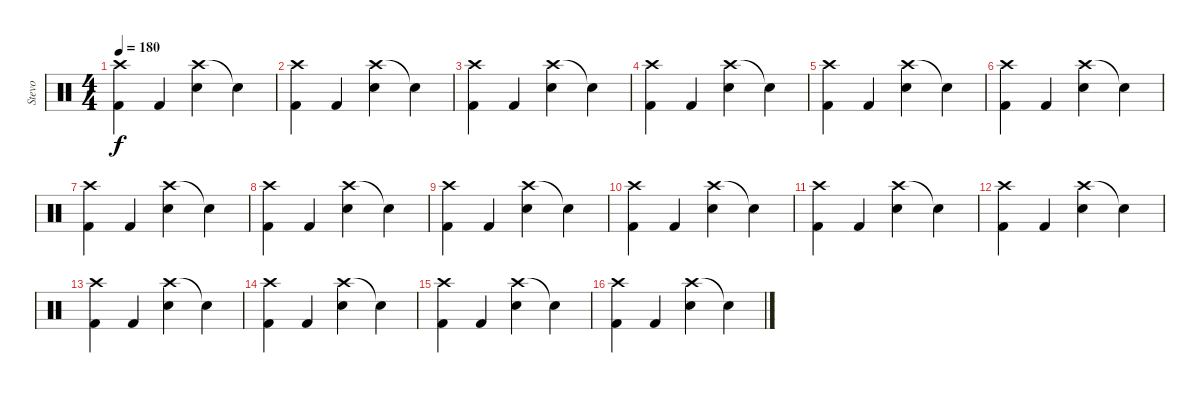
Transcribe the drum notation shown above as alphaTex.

\track ("Stevo" "Stevo") {instrument percussion}
\staff {score}
\articulation defaults
\ts (4 4)
\tempo 180
\clef neutral
\ks c
("Crash high (hit)" "Kick (hit) 2").4{dy f} "Kick (hit) 2".4 ("Crash high (hit)" "Electric Snare (hit)").4 "Snare (hit)"{t}.4 |
("Crash high (hit)" "Kick (hit) 2").4 "Kick (hit) 2".4 ("Crash high (hit)" "Electric Snare (hit)").4 "Snare (hit)"{t}.4 |
("Crash high (hit)" "Kick (hit) 2").4 "Kick (hit) 2".4 ("Crash high (hit)" "Electric Snare (hit)").4 "Snare (hit)"{t}.4 |
("Crash high (hit)" "Kick (hit) 2").4 "Kick (hit) 2".4 ("Crash high (hit)" "Electric Snare (hit)").4 "Snare (hit)"{t}.4 |
("Crash high (hit)" "Kick (hit) 2").4 "Kick (hit) 2".4 ("Crash high (hit)" "Electric Snare (hit)").4 "Snare (hit)"{t}.4 |
("Crash high (hit)" "Kick (hit) 2").4 "Kick (hit) 2".4 ("Crash high (hit)" "Electric Snare (hit)").4 "Snare (hit)"{t}.4 |
("Crash high (hit)" "Kick (hit) 2").4 "Kick (hit) 2".4 ("Crash high (hit)" "Electric Snare (hit)").4 "Snare (hit)"{t}.4 |
("Crash high (hit)" "Kick (hit) 2").4 "Kick (hit) 2".4 ("Crash high (hit)" "Electric Snare (hit)").4 "Snare (hit)"{t}.4 |
("Crash high (hit)" "Kick (hit) 2").4 "Kick (hit) 2".4 ("Crash high (hit)" "Electric Snare (hit)").4 "Snare (hit)"{t}.4 |
("Crash high (hit)" "Kick (hit) 2").4 "Kick (hit) 2".4 ("Crash high (hit)" "Electric Snare (hit)").4 "Snare (hit)"{t}.4 |
("Crash high (hit)" "Kick (hit) 2").4 "Kick (hit) 2".4 ("Crash high (hit)" "Electric Snare (hit)").4 "Snare (hit)"{t}.4 |
("Crash high (hit)" "Kick (hit) 2").4 "Kick (hit) 2".4 ("Crash high (hit)" "Electric Snare (hit)").4 "Snare (hit)"{t}.4 |
("Crash high (hit)" "Kick (hit) 2").4 "Kick (hit) 2".4 ("Crash high (hit)" "Electric Snare (hit)").4 "Snare (hit)"{t}.4 |
("Crash high (hit)" "Kick (hit) 2").4 "Kick (hit) 2".4 ("Crash high (hit)" "Electric Snare (hit)").4 "Snare (hit)"{t}.4 |
("Crash high (hit)" "Kick (hit) 2").4 "Kick (hit) 2".4 ("Crash high (hit)" "Electric Snare (hit)").4 "Snare (hit)"{t}.4 |
("Crash high (hit)" "Kick (hit) 2").4 "Kick (hit) 2".4 ("Crash high (hit)" "Electric Snare (hit)").4 "Snare (hit)"{t}.4
